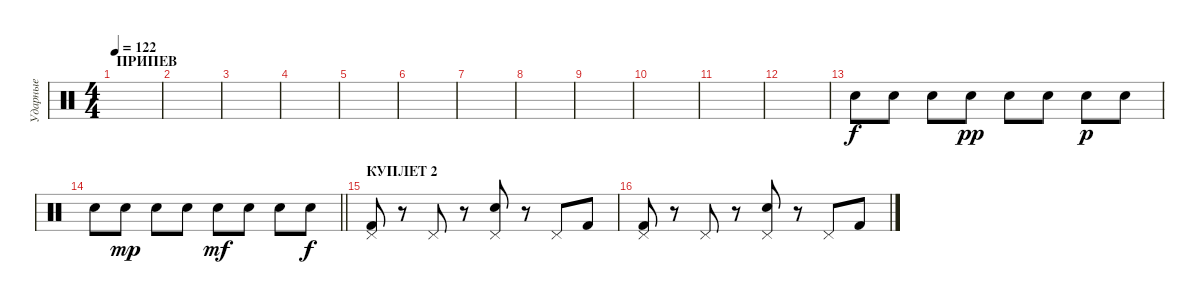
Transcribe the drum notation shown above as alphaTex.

\track ("Ударные" "Ударные") {instrument percussion}
\staff {score}
\articulation defaults
\ts (4 4)
\section ("" "ПРИПЕВ")
\tempo 122
\clef neutral
\ks c
|
|
|
|
|
|
|
|
|
|
|
|
"Snare (hit) 2".8 "Snare (hit) 2".8 "Snare (hit) 2".8 "Snare (hit) 2".8{dy pp} "Snare (hit) 2".8 "Snare (hit) 2".8 "Snare (hit) 2".8{dy p} "Snare (hit) 2".8 |
\barLineRight lightlight "Snare (hit) 2".8 "Snare (hit) 2".8{dy mp} "Snare (hit) 2".8 "Snare (hit) 2".8 "Snare (hit) 2".8{dy mf} "Snare (hit) 2".8 "Snare (hit) 2".8 "Snare (hit) 2".8{dy f}
|
\section ("" "КУПЛЕТ 2")
("Pedal Hi-Hat (hit)" "Kick (hit) 2").8 r.8 "Pedal Hi-Hat (hit)".8 r.8 ("Pedal Hi-Hat (hit)" "Snare (hit) 2").8 r.8 "Pedal Hi-Hat (hit)".8 "Kick (hit) 2".8 |
("Pedal Hi-Hat (hit)" "Kick (hit) 2").8 r.8 "Pedal Hi-Hat (hit)".8 r.8 ("Pedal Hi-Hat (hit)" "Snare (hit) 2").8 r.8 "Pedal Hi-Hat (hit)".8 "Kick (hit) 2".8
